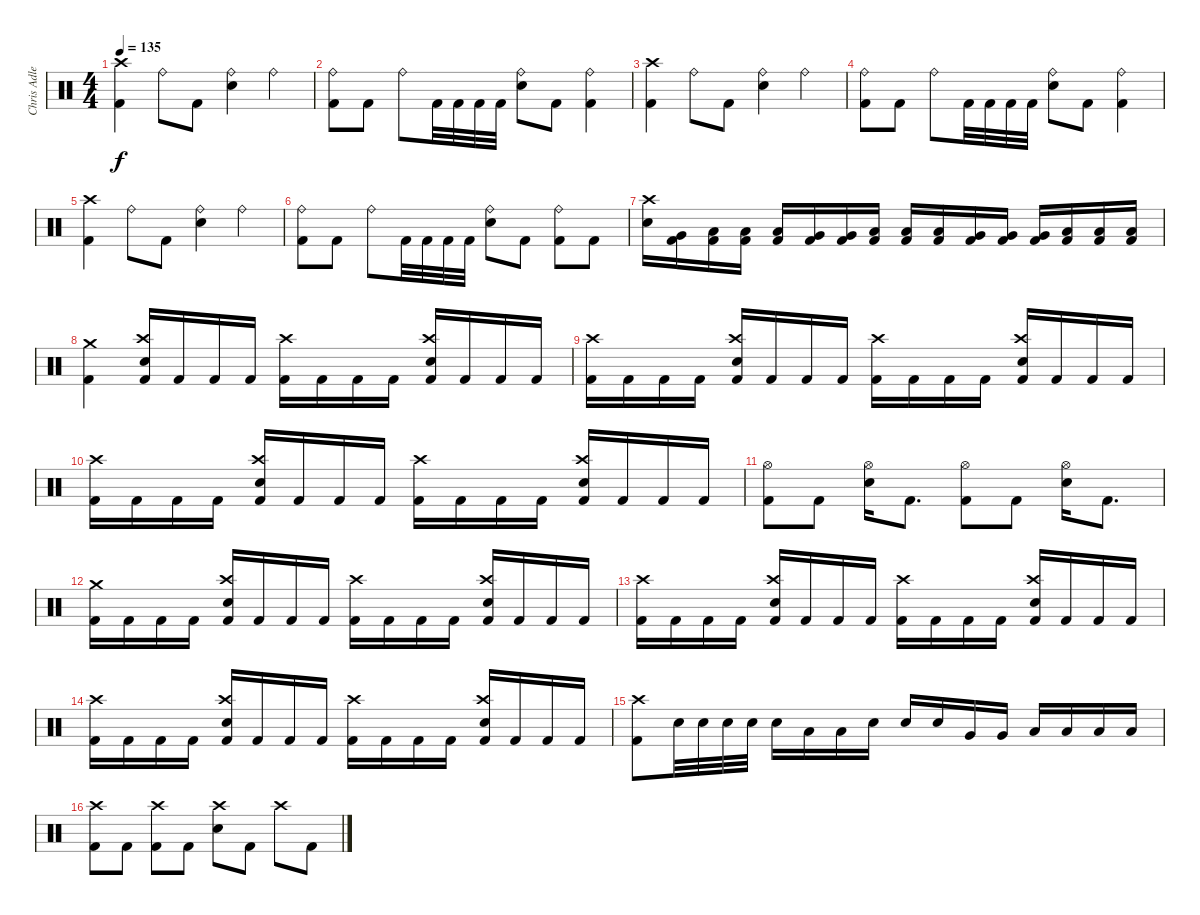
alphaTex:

\track ("Chris Adler Drums)" "Chris Adle") {instrument percussion}
\staff {score}
\articulation defaults
\ts (4 4)
\tempo 135
\clef neutral
\ks c
("Kick (hit) 2" "Crash high (hit)").4{dy f} "Ride (bell)".8 "Kick (hit) 2".8 ("Ride (bell)" "Snare (hit) 2").4 "Ride (bell)".4 |
("Ride (bell)" "Kick (hit) 2").8 "Kick (hit) 2".8 "Ride (bell)".8 "Kick (hit) 2".32 "Kick (hit) 2".32 "Kick (hit) 2".32 "Kick (hit) 2".32 ("Ride (bell)" "Snare (hit) 2").8 "Kick (hit) 2".8 ("Ride (bell)" "Kick (hit) 2").4 |
("Kick (hit) 2" "Crash high (hit)").4 "Ride (bell)".8 "Kick (hit) 2".8 ("Ride (bell)" "Snare (hit) 2").4 "Ride (bell)".4 |
("Ride (bell)" "Kick (hit) 2").8 "Kick (hit) 2".8 "Ride (bell)".8 "Kick (hit) 2".32 "Kick (hit) 2".32 "Kick (hit) 2".32 "Kick (hit) 2".32 ("Ride (bell)" "Snare (hit) 2").8 "Kick (hit) 2".8 ("Ride (bell)" "Kick (hit) 2").4 |
("Kick (hit) 2" "Crash high (hit)").4 "Ride (bell)".8 "Kick (hit) 2".8 ("Ride (bell)" "Snare (hit) 2").4 "Ride (bell)".4 |
("Ride (bell)" "Kick (hit) 2").8 "Kick (hit) 2".8 "Ride (bell)".8 "Kick (hit) 2".32 "Kick (hit) 2".32 "Kick (hit) 2".32 "Kick (hit) 2".32 ("Ride (bell)" "Snare (hit) 2").8 "Kick (hit) 2".8 ("Ride (bell)" "Kick (hit) 2").8 "Kick (hit) 2".8 |
("Crash high (hit)" "Snare (hit) 2").16 ("Kick (hit) 2" "Very Low Tom (hit)").16 ("Kick (hit) 2" "Low Floor Tom (hit)").16 ("Kick (hit) 2" "Low Floor Tom (hit)").16 ("Kick (hit) 2" "Low Floor Tom (hit)").16 ("Kick (hit) 2" "Very Low Tom (hit)").16 ("Kick (hit) 2" "Very Low Tom (hit)").16 ("Kick (hit) 2" "Low Floor Tom (hit)").16 ("Kick (hit) 2" "Low Floor Tom (hit)").16 ("Kick (hit) 2" "Low Floor Tom (hit)").16 ("Kick (hit) 2" "Very Low Tom (hit)").16 ("Kick (hit) 2" "Very Low Tom (hit)").16 ("Kick (hit) 2" "Very Low Tom (hit)").16 ("Kick (hit) 2" "Low Floor Tom (hit)").16 ("Kick (hit) 2" "Low Floor Tom (hit)").16 ("Kick (hit) 2" "Low Floor Tom (hit)").16 |
("Crash medium (hit)" "Kick (hit) 2").4 ("Crash high (hit)" "Kick (hit) 2" "Snare (hit) 2").16 "Kick (hit) 2".16 "Kick (hit) 2".16 "Kick (hit) 2".16 ("Crash high (hit)" "Kick (hit) 2").16 "Kick (hit) 2".16 "Kick (hit) 2".16 "Kick (hit) 2".16 ("Crash high (hit)" "Snare (hit) 2" "Kick (hit) 2").16 "Kick (hit) 2".16 "Kick (hit) 2".16 "Kick (hit) 2".16 |
("Crash high (hit)" "Kick (hit) 2").16 "Kick (hit) 2".16 "Kick (hit) 2".16 "Kick (hit) 2".16 ("Crash high (hit)" "Snare (hit) 2" "Kick (hit) 2").16 "Kick (hit) 2".16 "Kick (hit) 2".16 "Kick (hit) 2".16 ("Crash high (hit)" "Kick (hit) 2").16 "Kick (hit) 2".16 "Kick (hit) 2".16 "Kick (hit) 2".16 ("Crash high (hit)" "Snare (hit) 2" "Kick (hit) 2").16 "Kick (hit) 2".16 "Kick (hit) 2".16 "Kick (hit) 2".16 |
("Crash high (hit)" "Kick (hit) 2").16 "Kick (hit) 2".16 "Kick (hit) 2".16 "Kick (hit) 2".16 ("Crash high (hit)" "Snare (hit) 2" "Kick (hit) 2").16 "Kick (hit) 2".16 "Kick (hit) 2".16 "Kick (hit) 2".16 ("Crash high (hit)" "Kick (hit) 2").16 "Kick (hit) 2".16 "Kick (hit) 2".16 "Kick (hit) 2".16 ("Crash high (hit)" "Snare (hit) 2" "Kick (hit) 2").16 "Kick (hit) 2".16 "Kick (hit) 2".16 "Kick (hit) 2".16 |
("Hi-Hat (open)" "Kick (hit) 2").8 "Kick (hit) 2".8 ("Hi-Hat (open)" "Snare (hit) 2").16 "Kick (hit) 2".8{d} ("Hi-Hat (open)" "Kick (hit) 2").8 "Kick (hit) 2".8 ("Hi-Hat (open)" "Snare (hit) 2").16 "Kick (hit) 2".8{d} |
("Crash medium (hit)" "Kick (hit) 2").16 "Kick (hit) 2".16 "Kick (hit) 2".16 "Kick (hit) 2".16 ("Crash high (hit)" "Snare (hit) 2" "Kick (hit) 2").16 "Kick (hit) 2".16 "Kick (hit) 2".16 "Kick (hit) 2".16 ("Crash high (hit)" "Kick (hit) 2").16 "Kick (hit) 2".16 "Kick (hit) 2".16 "Kick (hit) 2".16 ("Crash high (hit)" "Snare (hit) 2" "Kick (hit) 2").16 "Kick (hit) 2".16 "Kick (hit) 2".16 "Kick (hit) 2".16 |
("Crash high (hit)" "Kick (hit) 2").16 "Kick (hit) 2".16 "Kick (hit) 2".16 "Kick (hit) 2".16 ("Crash high (hit)" "Snare (hit) 2" "Kick (hit) 2").16 "Kick (hit) 2".16 "Kick (hit) 2".16 "Kick (hit) 2".16 ("Crash high (hit)" "Kick (hit) 2").16 "Kick (hit) 2".16 "Kick (hit) 2".16 "Kick (hit) 2".16 ("Crash high (hit)" "Snare (hit) 2" "Kick (hit) 2").16 "Kick (hit) 2".16 "Kick (hit) 2".16 "Kick (hit) 2".16 |
("Crash high (hit)" "Kick (hit) 2").16 "Kick (hit) 2".16 "Kick (hit) 2".16 "Kick (hit) 2".16 ("Crash high (hit)" "Snare (hit) 2" "Kick (hit) 2").16 "Kick (hit) 2".16 "Kick (hit) 2".16 "Kick (hit) 2".16 ("Crash high (hit)" "Kick (hit) 2").16 "Kick (hit) 2".16 "Kick (hit) 2".16 "Kick (hit) 2".16 ("Crash high (hit)" "Snare (hit) 2" "Kick (hit) 2").16 "Kick (hit) 2".16 "Kick (hit) 2".16 "Kick (hit) 2".16 |
("Kick (hit) 2" "Crash high (hit)").8 "Snare (hit) 2".32 "Snare (hit) 2".32 "Snare (hit) 2".32 "Snare (hit) 2".32 "Snare (hit) 2".16 "Low Tom (hit)".16 "Low Tom (hit)".16 "Snare (hit) 2".16 "Snare (hit) 2".16 "Snare (hit) 2".16 "Very Low Tom (hit)".16 "Very Low Tom (hit)".16 "Low Floor Tom (hit)".16 "Low Floor Tom (hit)".16 "Low Floor Tom (hit)".16 "Low Floor Tom (hit)".16 |
("Crash high (hit)" "Kick (hit) 2").8 "Kick (hit) 2".8 ("Crash high (hit)" "Kick (hit) 2").8 "Kick (hit) 2".8 ("Crash high (hit)" "Snare (hit) 2").8 "Kick (hit) 2".8 "Crash high (hit)".8 "Kick (hit) 2".8
